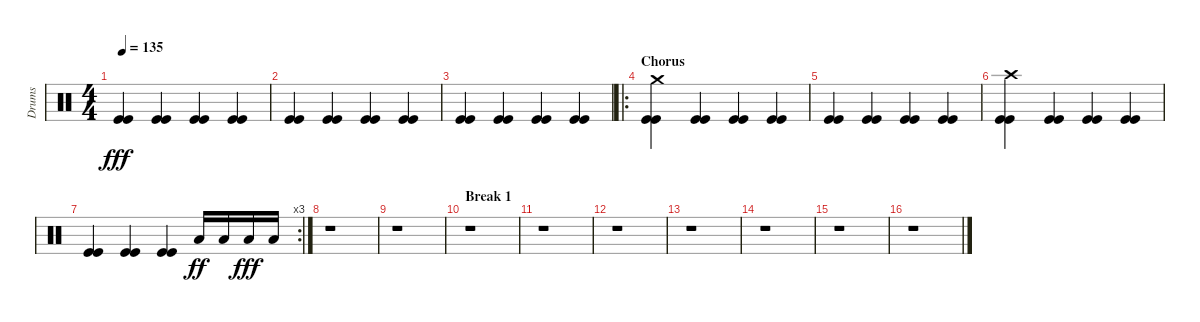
\track ("Drums" "Drums") {instrument percussion}
\staff {score}
\articulation defaults
\ts (4 4)
\tempo 135
\clef neutral
\ks c
("Kick (hit)" "Kick (hit)").4{dy fff} ("Kick (hit)" "Kick (hit)").4 ("Kick (hit)" "Kick (hit)").4 ("Kick (hit)" "Kick (hit)").4 |
("Kick (hit)" "Kick (hit)").4 ("Kick (hit)" "Kick (hit)").4 ("Kick (hit)" "Kick (hit)").4 ("Kick (hit)" "Kick (hit)").4 |
("Kick (hit)" "Kick (hit)").4 ("Kick (hit)" "Kick (hit)").4 ("Kick (hit)" "Kick (hit)").4 ("Kick (hit)" "Kick (hit)").4 |
\ro
\section ("" "Chorus")
("Crash medium (hit)" "Kick (hit)" "Kick (hit)").4 ("Kick (hit)" "Kick (hit)").4 ("Kick (hit)" "Kick (hit)").4 ("Kick (hit)" "Kick (hit)").4 |
("Kick (hit)" "Kick (hit)").4 ("Kick (hit)" "Kick (hit)").4 ("Kick (hit)" "Kick (hit)").4 ("Kick (hit)" "Kick (hit)").4 |
("Crash high (hit)" "Kick (hit)" "Kick (hit)").4 ("Kick (hit)" "Kick (hit)").4 ("Kick (hit)" "Kick (hit)").4 ("Kick (hit)" "Kick (hit)").4 |
\rc 3
("Kick (hit)" "Kick (hit)").4 ("Kick (hit)" "Kick (hit)").4 ("Kick (hit)" "Kick (hit)").4 "Low Tom (hit)".16{dy ff} "Low Tom (hit)".16 "Low Tom (hit)".16{dy fff} "Low Tom (hit)".16 |
r.1 |
r.1 |
\section ("" "Break 1 ")
r.1 |
r.1 |
r.1 |
r.1 |
r.1 |
r.1 |
r.1
